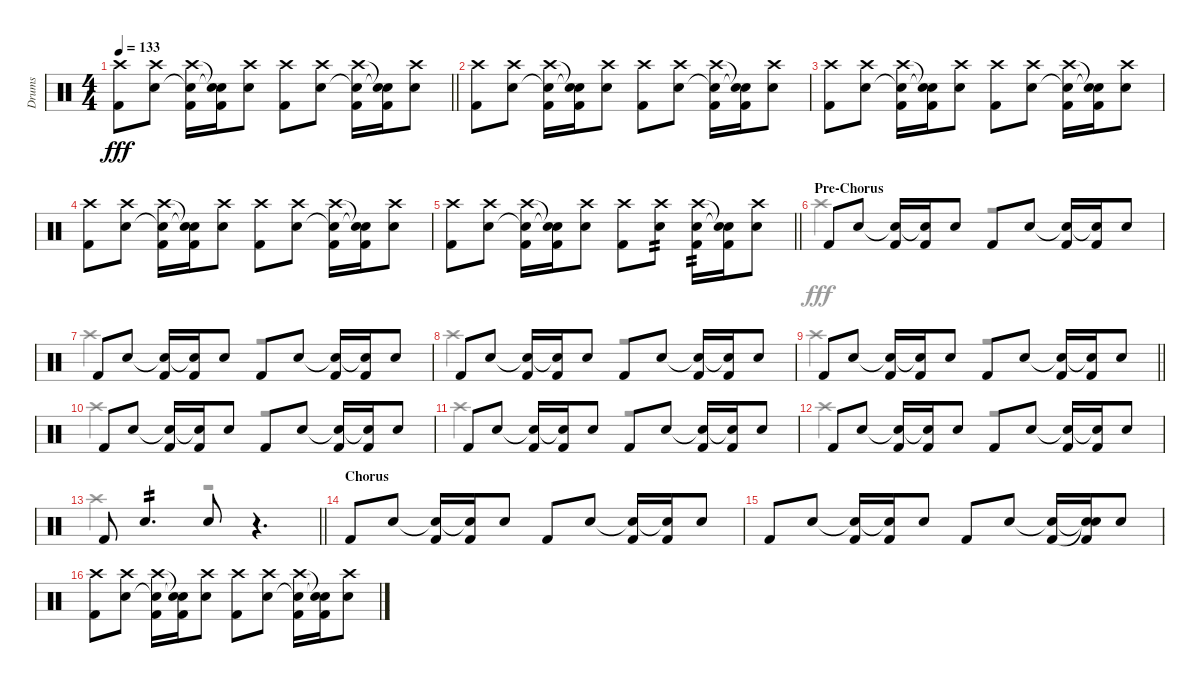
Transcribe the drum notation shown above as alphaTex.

\track ("Drums" "Drums") {instrument percussion}
\staff
\articulation defaults
\voice
\ts (4 4)
\tempo 133
\clef neutral
\barLineRight lightlight
\ks c
("Crash high (hit)" "Kick (hit) 2").8{dy fff} ("Crash high (hit)" "Electric Snare (hit)").8 ("Crash high (hit)" "Electric Snare (hit)"{t} "Kick (hit) 2").16 ("Snare (hit)"{t} "Electric Snare (hit)"{t} "Kick (hit) 2").16 ("Crash high (hit)" "Electric Snare (hit)").8 ("Crash high (hit)" "Kick (hit) 2").8 ("Crash high (hit)" "Electric Snare (hit)").8 ("Crash high (hit)" "Electric Snare (hit)"{t} "Kick (hit) 2").16 ("Snare (hit)"{t} "Electric Snare (hit)"{t} "Kick (hit) 2").16 ("Crash high (hit)" "Electric Snare (hit)").8 |
("Crash high (hit)" "Kick (hit) 2").8 ("Crash high (hit)" "Electric Snare (hit)").8 ("Crash high (hit)" "Electric Snare (hit)"{t} "Kick (hit) 2").16 ("Snare (hit)"{t} "Electric Snare (hit)"{t} "Kick (hit) 2").16 ("Crash high (hit)" "Electric Snare (hit)").8 ("Crash high (hit)" "Kick (hit) 2").8 ("Crash high (hit)" "Electric Snare (hit)").8 ("Crash high (hit)" "Electric Snare (hit)"{t} "Kick (hit) 2").16 ("Snare (hit)"{t} "Electric Snare (hit)"{t} "Kick (hit) 2").16 ("Crash high (hit)" "Electric Snare (hit)").8 |
("Crash high (hit)" "Kick (hit) 2").8 ("Crash high (hit)" "Electric Snare (hit)").8 ("Crash high (hit)" "Electric Snare (hit)"{t} "Kick (hit) 2").16 ("Snare (hit)"{t} "Electric Snare (hit)"{t} "Kick (hit) 2").16 ("Crash high (hit)" "Electric Snare (hit)").8 ("Crash high (hit)" "Kick (hit) 2").8 ("Crash high (hit)" "Electric Snare (hit)").8 ("Crash high (hit)" "Electric Snare (hit)"{t} "Kick (hit) 2").16 ("Snare (hit)"{t} "Electric Snare (hit)"{t} "Kick (hit) 2").16 ("Crash high (hit)" "Electric Snare (hit)").8 |
("Crash high (hit)" "Kick (hit) 2").8 ("Crash high (hit)" "Electric Snare (hit)").8 ("Crash high (hit)" "Electric Snare (hit)"{t} "Kick (hit) 2").16 ("Snare (hit)"{t} "Electric Snare (hit)"{t} "Kick (hit) 2").16 ("Crash high (hit)" "Electric Snare (hit)").8 ("Crash high (hit)" "Kick (hit) 2").8 ("Crash high (hit)" "Electric Snare (hit)").8 ("Crash high (hit)" "Electric Snare (hit)"{t} "Kick (hit) 2").16 ("Snare (hit)"{t} "Electric Snare (hit)"{t} "Kick (hit) 2").16 ("Crash high (hit)" "Electric Snare (hit)").8 |
\barLineRight lightlight
("Crash high (hit)" "Kick (hit) 2").8 ("Crash high (hit)" "Electric Snare (hit)").8 ("Crash high (hit)" "Electric Snare (hit)"{t} "Kick (hit) 2").16 ("Snare (hit)"{t} "Electric Snare (hit)"{t} "Kick (hit) 2").16 ("Crash high (hit)" "Electric Snare (hit)").8 ("Crash high (hit)" "Kick (hit) 2").8 ("Crash high (hit)" "Electric Snare (hit)").8{tp 2} ("Crash high (hit)" "Electric Snare (hit)" "Kick (hit) 2").16{tp 2} ("Snare (hit)"{t} "Electric Snare (hit)"{t} "Kick (hit) 2").16 ("Crash high (hit)" "Electric Snare (hit)").8 |
\section ("" "Pre-Chorus")
"Kick (hit) 2".8 "Electric Snare (hit)".8 ("Electric Snare (hit)"{t} "Kick (hit) 2").16 ("Electric Snare (hit)"{t} "Kick (hit) 2").16 "Electric Snare (hit)".8 "Kick (hit) 2".8 "Electric Snare (hit)".8 ("Electric Snare (hit)"{t} "Kick (hit) 2").16 ("Electric Snare (hit)"{t} "Kick (hit) 2").16 "Electric Snare (hit)".8 |
"Kick (hit) 2".8 "Electric Snare (hit)".8 ("Electric Snare (hit)"{t} "Kick (hit) 2").16 ("Electric Snare (hit)"{t} "Kick (hit) 2").16 "Electric Snare (hit)".8 "Kick (hit) 2".8 "Electric Snare (hit)".8 ("Electric Snare (hit)"{t} "Kick (hit) 2").16 ("Electric Snare (hit)"{t} "Kick (hit) 2").16 "Electric Snare (hit)".8 |
"Kick (hit) 2".8 "Electric Snare (hit)".8 ("Electric Snare (hit)"{t} "Kick (hit) 2").16 ("Electric Snare (hit)"{t} "Kick (hit) 2").16 "Electric Snare (hit)".8 "Kick (hit) 2".8 "Electric Snare (hit)".8 ("Electric Snare (hit)"{t} "Kick (hit) 2").16 ("Electric Snare (hit)"{t} "Kick (hit) 2").16 "Electric Snare (hit)".8 |
\barLineRight lightlight "Kick (hit) 2".8 "Electric Snare (hit)".8
("Electric Snare (hit)"{t} "Kick (hit) 2").16 ("Electric Snare (hit)"{t} "Kick (hit) 2").16 "Electric Snare (hit)".8 "Kick (hit) 2".8 "Electric Snare (hit)".8 ("Electric Snare (hit)"{t} "Kick (hit) 2").16 ("Electric Snare (hit)"{t} "Kick (hit) 2").16 "Electric Snare (hit)".8 |
"Kick (hit) 2".8 "Electric Snare (hit)".8 ("Electric Snare (hit)"{t} "Kick (hit) 2").16 ("Electric Snare (hit)"{t} "Kick (hit) 2").16 "Electric Snare (hit)".8 "Kick (hit) 2".8 "Electric Snare (hit)".8 ("Electric Snare (hit)"{t} "Kick (hit) 2").16 ("Electric Snare (hit)"{t} "Kick (hit) 2").16 "Electric Snare (hit)".8 |
"Kick (hit) 2".8 "Electric Snare (hit)".8 ("Electric Snare (hit)"{t} "Kick (hit) 2").16 ("Electric Snare (hit)"{t} "Kick (hit) 2").16 "Electric Snare (hit)".8 "Kick (hit) 2".8 "Electric Snare (hit)".8 ("Electric Snare (hit)"{t} "Kick (hit) 2").16 ("Electric Snare (hit)"{t} "Kick (hit) 2").16 "Electric Snare (hit)".8 |
"Kick (hit) 2".8 "Electric Snare (hit)".8 ("Electric Snare (hit)"{t} "Kick (hit) 2").16 ("Electric Snare (hit)"{t} "Kick (hit) 2").16 "Electric Snare (hit)".8 "Kick (hit) 2".8 "Electric Snare (hit)".8 ("Electric Snare (hit)"{t} "Kick (hit) 2").16 ("Electric Snare (hit)"{t} "Kick (hit) 2").16 "Electric Snare (hit)".8 |
\barLineRight lightlight "Kick (hit) 2".8 "Electric Snare (hit)".4{d tp 2} "Electric Snare (hit)".8
r.4{d} |
\section ("" "Chorus")
"Kick (hit) 2".8 "Electric Snare (hit)".8 ("Electric Snare (hit)"{t} "Kick (hit) 2").16 ("Electric Snare (hit)"{t} "Kick (hit) 2").16 "Electric Snare (hit)".8 "Kick (hit) 2".8 "Electric Snare (hit)".8 ("Electric Snare (hit)"{t} "Kick (hit) 2").16 ("Electric Snare (hit)"{t} "Kick (hit) 2").16 "Electric Snare (hit)".8 |
"Kick (hit) 2".8 "Electric Snare (hit)".8 ("Electric Snare (hit)"{t} "Kick (hit) 2").16 ("Electric Snare (hit)"{t} "Kick (hit) 2").16 "Electric Snare (hit)".8 "Kick (hit) 2".8 "Electric Snare (hit)".8 ("Electric Snare (hit)"{t} "Kick (hit) 2").16 ("Snare (hit)"{t} "Electric Snare (hit)"{t} "Kick (hit) 2").16 "Electric Snare (hit)".8 |
("Crash high (hit)" "Kick (hit) 2").8 ("Crash high (hit)" "Electric Snare (hit)").8 ("Crash high (hit)" "Electric Snare (hit)"{t} "Kick (hit) 2").16 ("Snare (hit)"{t} "Electric Snare (hit)"{t} "Kick (hit) 2").16 ("Crash high (hit)" "Electric Snare (hit)").8 ("Crash high (hit)" "Kick (hit) 2").8 ("Crash high (hit)" "Electric Snare (hit)").8 ("Crash high (hit)" "Electric Snare (hit)"{t} "Kick (hit) 2").16 ("Snare (hit)"{t} "Electric Snare (hit)"{t} "Kick (hit) 2").16 ("Crash high (hit)" "Electric Snare (hit)").8
\voice
\clef neutral
\ottava regular
\simile none
\barLineRight lightlight
\ks c
|
|
|
|
\barLineRight lightlight
|
"Crash high (hit)".2 r.2 |
"Crash high (hit)".2 r.2 |
"Crash high (hit)".2 r.2 |
\barLineRight lightlight "Crash high (hit)".2
r.2 |
"Crash high (hit)".2 r.2 |
"Crash high (hit)".2 r.2 |
"Crash high (hit)".2 r.2 |
\barLineRight lightlight "Crash high (hit)".2
r.2 |
|
|
